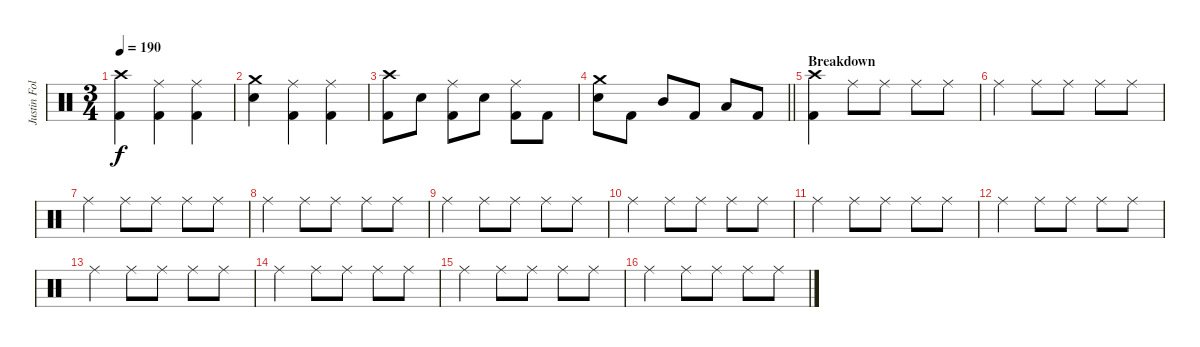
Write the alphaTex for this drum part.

\track ("Justin Foley" "Justin Fol") {instrument percussion}
\staff {score}
\articulation defaults
\ts (3 4)
\tempo 190
\clef neutral
\ks c
("Crash high (hit)" "Kick (hit) 2").4{dy f} ("Ride (middle)" "Kick (hit) 2").4 ("Ride (middle)" "Kick (hit) 2").4 |
("Crash medium (hit)" "Electric Snare (hit)").4 ("Ride (middle)" "Kick (hit) 2").4 ("Ride (middle)" "Kick (hit) 2").4 |
("Crash high (hit)" "Kick (hit) 2").8 "Electric Snare (hit)".8 ("Ride (middle)" "Kick (hit) 2").8 "Electric Snare (hit)".8 ("Ride (middle)" "Kick (hit) 2").8 "Kick (hit) 2".8 |
\barLineRight lightlight
("Crash medium (hit)" "Electric Snare (hit)").8 "Kick (hit) 2".8 "Mid Tom (hit)".8 "Kick (hit) 2".8 "Low Tom (hit)".8 "Kick (hit) 2".8 |
\section ("" "Breakdown")
("Crash high (hit)" "Kick (hit) 2").4 "Ride (middle)".8 "Ride (middle)".8 "Ride (middle)".8 "Ride (middle)".8 |
"Ride (middle)".4 "Ride (middle)".8 "Ride (middle)".8 "Ride (middle)".8 "Ride (middle)".8 |
"Ride (middle)".4 "Ride (middle)".8 "Ride (middle)".8 "Ride (middle)".8 "Ride (middle)".8 |
"Ride (middle)".4 "Ride (middle)".8 "Ride (middle)".8 "Ride (middle)".8 "Ride (middle)".8 |
"Ride (middle)".4 "Ride (middle)".8 "Ride (middle)".8 "Ride (middle)".8 "Ride (middle)".8 |
"Ride (middle)".4 "Ride (middle)".8 "Ride (middle)".8 "Ride (middle)".8 "Ride (middle)".8 |
"Ride (middle)".4 "Ride (middle)".8 "Ride (middle)".8 "Ride (middle)".8 "Ride (middle)".8 |
"Ride (middle)".4 "Ride (middle)".8 "Ride (middle)".8 "Ride (middle)".8 "Ride (middle)".8 |
"Ride (middle)".4 "Ride (middle)".8 "Ride (middle)".8 "Ride (middle)".8 "Ride (middle)".8 |
"Ride (middle)".4 "Ride (middle)".8 "Ride (middle)".8 "Ride (middle)".8 "Ride (middle)".8 |
"Ride (middle)".4 "Ride (middle)".8 "Ride (middle)".8 "Ride (middle)".8 "Ride (middle)".8 |
"Ride (middle)".4 "Ride (middle)".8 "Ride (middle)".8 "Ride (middle)".8 "Ride (middle)".8
